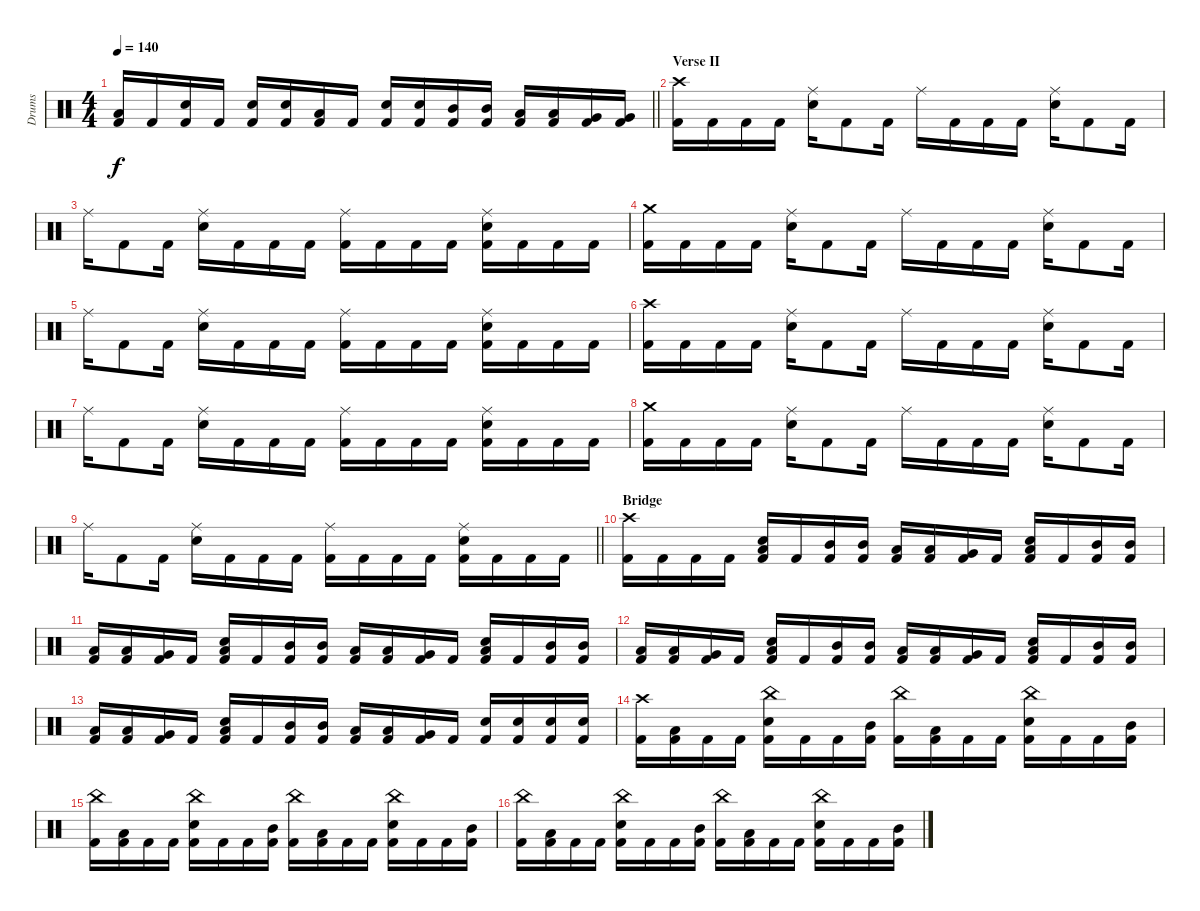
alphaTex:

\track ("Drums" "Drums") {instrument percussion}
\staff {score}
\articulation defaults
\ts (4 4)
\tempo 140
\clef neutral
\barLineRight lightlight
\ks c
("Low Floor Tom (hit)" "Kick (hit) 2").16{dy f} "Kick (hit) 2".16 ("Electric Snare (hit)" "Kick (hit) 2").16 "Kick (hit) 2".16 ("Electric Snare (hit)" "Kick (hit) 2").16 ("Electric Snare (hit)" "Kick (hit) 2").16 ("Low Tom (hit)" "Kick (hit) 2").16 "Kick (hit) 2".16 ("Electric Snare (hit)" "Kick (hit) 2").16 ("Electric Snare (hit)" "Kick (hit) 2").16 ("Mid Tom (hit)" "Kick (hit) 2").16 ("Mid Tom (hit)" "Kick (hit) 2").16 ("Low Tom (hit)" "Kick (hit) 2").16 ("Low Tom (hit)" "Kick (hit) 2").16 ("Very Low Tom (hit)" "Kick (hit) 2").16 ("Very Low Tom (hit)" "Kick (hit) 2").16 |
\section ("" "Verse II")
("Crash high (hit)" "Kick (hit) 2").16 "Kick (hit) 2".16 "Kick (hit) 2".16 "Kick (hit) 2".16 ("Ride (middle)" "Electric Snare (hit)").16 "Kick (hit) 2".8 "Kick (hit) 2".16 "Ride (middle)".16 "Kick (hit) 2".16 "Kick (hit) 2".16 "Kick (hit) 2".16 ("Ride (middle)" "Electric Snare (hit)").16 "Kick (hit) 2".8 "Kick (hit) 2".16 |
"Ride (middle)".16 "Kick (hit) 2".8 "Kick (hit) 2".16 ("Ride (middle)" "Electric Snare (hit)").16 "Kick (hit) 2".16 "Kick (hit) 2".16 "Kick (hit) 2".16 ("Ride (middle)" "Kick (hit) 2").16 "Kick (hit) 2".16 "Kick (hit) 2".16 "Kick (hit) 2".16 ("Ride (middle)" "Electric Snare (hit)" "Kick (hit) 2").16 "Kick (hit) 2".16 "Kick (hit) 2".16 "Kick (hit) 2".16 |
("Crash medium (hit)" "Kick (hit) 2").16 "Kick (hit) 2".16 "Kick (hit) 2".16 "Kick (hit) 2".16 ("Ride (middle)" "Electric Snare (hit)").16 "Kick (hit) 2".8 "Kick (hit) 2".16 "Ride (middle)".16 "Kick (hit) 2".16 "Kick (hit) 2".16 "Kick (hit) 2".16 ("Ride (middle)" "Electric Snare (hit)").16 "Kick (hit) 2".8 "Kick (hit) 2".16 |
"Ride (middle)".16 "Kick (hit) 2".8 "Kick (hit) 2".16 ("Ride (middle)" "Electric Snare (hit)").16 "Kick (hit) 2".16 "Kick (hit) 2".16 "Kick (hit) 2".16 ("Ride (middle)" "Kick (hit) 2").16 "Kick (hit) 2".16 "Kick (hit) 2".16 "Kick (hit) 2".16 ("Ride (middle)" "Electric Snare (hit)" "Kick (hit) 2").16 "Kick (hit) 2".16 "Kick (hit) 2".16 "Kick (hit) 2".16 |
("Crash high (hit)" "Kick (hit) 2").16 "Kick (hit) 2".16 "Kick (hit) 2".16 "Kick (hit) 2".16 ("Ride (middle)" "Electric Snare (hit)").16 "Kick (hit) 2".8 "Kick (hit) 2".16 "Ride (middle)".16 "Kick (hit) 2".16 "Kick (hit) 2".16 "Kick (hit) 2".16 ("Ride (middle)" "Electric Snare (hit)").16 "Kick (hit) 2".8 "Kick (hit) 2".16 |
"Ride (middle)".16 "Kick (hit) 2".8 "Kick (hit) 2".16 ("Ride (middle)" "Electric Snare (hit)").16 "Kick (hit) 2".16 "Kick (hit) 2".16 "Kick (hit) 2".16 ("Ride (middle)" "Kick (hit) 2").16 "Kick (hit) 2".16 "Kick (hit) 2".16 "Kick (hit) 2".16 ("Ride (middle)" "Electric Snare (hit)" "Kick (hit) 2").16 "Kick (hit) 2".16 "Kick (hit) 2".16 "Kick (hit) 2".16 |
("Crash medium (hit)" "Kick (hit) 2").16 "Kick (hit) 2".16 "Kick (hit) 2".16 "Kick (hit) 2".16 ("Ride (middle)" "Electric Snare (hit)").16 "Kick (hit) 2".8 "Kick (hit) 2".16 "Ride (middle)".16 "Kick (hit) 2".16 "Kick (hit) 2".16 "Kick (hit) 2".16 ("Ride (middle)" "Electric Snare (hit)").16 "Kick (hit) 2".8 "Kick (hit) 2".16 |
\barLineRight lightlight "Ride (middle)".16 "Kick (hit) 2".8 "Kick (hit) 2".16
("Ride (middle)" "Electric Snare (hit)").16 "Kick (hit) 2".16 "Kick (hit) 2".16 "Kick (hit) 2".16 ("Ride (middle)" "Kick (hit) 2").16 "Kick (hit) 2".16 "Kick (hit) 2".16 "Kick (hit) 2".16 ("Ride (middle)" "Electric Snare (hit)" "Kick (hit) 2").16 "Kick (hit) 2".16 "Kick (hit) 2".16 "Kick (hit) 2".16 |
\section ("" "Bridge")
("Crash high (hit)" "Kick (hit) 2").16 "Kick (hit) 2".16 "Kick (hit) 2".16 "Kick (hit) 2".16 ("Low Floor Tom (hit)" "Electric Snare (hit)" "Kick (hit) 2").16 "Kick (hit) 2".16 ("Mid Tom (hit)" "Kick (hit) 2").16 ("Mid Tom (hit)" "Kick (hit) 2").16 ("Low Tom (hit)" "Kick (hit) 2").16 ("Low Tom (hit)" "Kick (hit) 2").16 ("Very Low Tom (hit)" "Kick (hit) 2").16 "Kick (hit) 2".16 ("Low Floor Tom (hit)" "Electric Snare (hit)" "Kick (hit) 2").16 "Kick (hit) 2".16 ("Mid Tom (hit)" "Kick (hit) 2").16 ("Mid Tom (hit)" "Kick (hit) 2").16 |
("Low Tom (hit)" "Kick (hit) 2").16 ("Low Tom (hit)" "Kick (hit) 2").16 ("Very Low Tom (hit)" "Kick (hit) 2").16 "Kick (hit) 2".16 ("Low Floor Tom (hit)" "Electric Snare (hit)" "Kick (hit) 2").16 "Kick (hit) 2".16 ("Mid Tom (hit)" "Kick (hit) 2").16 ("Mid Tom (hit)" "Kick (hit) 2").16 ("Low Tom (hit)" "Kick (hit) 2").16 ("Low Tom (hit)" "Kick (hit) 2").16 ("Very Low Tom (hit)" "Kick (hit) 2").16 "Kick (hit) 2".16 ("Low Floor Tom (hit)" "Electric Snare (hit)" "Kick (hit) 2").16 "Kick (hit) 2".16 ("Mid Tom (hit)" "Kick (hit) 2").16 ("Mid Tom (hit)" "Kick (hit) 2").16 |
("Low Tom (hit)" "Kick (hit) 2").16 ("Low Tom (hit)" "Kick (hit) 2").16 ("Very Low Tom (hit)" "Kick (hit) 2").16 "Kick (hit) 2".16 ("Low Floor Tom (hit)" "Electric Snare (hit)" "Kick (hit) 2").16 "Kick (hit) 2".16 ("Mid Tom (hit)" "Kick (hit) 2").16 ("Mid Tom (hit)" "Kick (hit) 2").16 ("Low Tom (hit)" "Kick (hit) 2").16 ("Low Tom (hit)" "Kick (hit) 2").16 ("Very Low Tom (hit)" "Kick (hit) 2").16 "Kick (hit) 2".16 ("Low Floor Tom (hit)" "Electric Snare (hit)" "Kick (hit) 2").16 "Kick (hit) 2".16 ("Mid Tom (hit)" "Kick (hit) 2").16 ("Mid Tom (hit)" "Kick (hit) 2").16 |
("Low Tom (hit)" "Kick (hit) 2").16 ("Low Tom (hit)" "Kick (hit) 2").16 ("Very Low Tom (hit)" "Kick (hit) 2").16 "Kick (hit) 2".16 ("Low Floor Tom (hit)" "Electric Snare (hit)" "Kick (hit) 2").16 "Kick (hit) 2".16 ("Mid Tom (hit)" "Kick (hit) 2").16 ("Mid Tom (hit)" "Kick (hit) 2").16 ("Low Tom (hit)" "Kick (hit) 2").16 ("Low Tom (hit)" "Kick (hit) 2").16 ("Very Low Tom (hit)" "Kick (hit) 2").16 "Kick (hit) 2".16 ("Electric Snare (hit)" "Kick (hit) 2").16 ("Electric Snare (hit)" "Kick (hit) 2").16 ("Electric Snare (hit)" "Kick (hit) 2").16 ("Electric Snare (hit)" "Kick (hit) 2").16 |
("Crash high (hit)" "Kick (hit) 2").16 ("Low Tom (hit)" "Kick (hit) 2").16 "Kick (hit) 2".16 "Kick (hit) 2".16 ("China (hit)" "Electric Snare (hit)" "Kick (hit) 2").16 "Kick (hit) 2".16 "Kick (hit) 2".16 ("Mid Tom (hit)" "Kick (hit) 2").16 ("China (hit)" "Kick (hit) 2").16 ("Low Tom (hit)" "Kick (hit) 2").16 "Kick (hit) 2".16 "Kick (hit) 2".16 ("China (hit)" "Electric Snare (hit)" "Kick (hit) 2").16 "Kick (hit) 2".16 "Kick (hit) 2".16 ("Mid Tom (hit)" "Kick (hit) 2").16 |
("China (hit)" "Kick (hit) 2").16 ("Low Tom (hit)" "Kick (hit) 2").16 "Kick (hit) 2".16 "Kick (hit) 2".16 ("China (hit)" "Electric Snare (hit)" "Kick (hit) 2").16 "Kick (hit) 2".16 "Kick (hit) 2".16 ("Mid Tom (hit)" "Kick (hit) 2").16 ("China (hit)" "Kick (hit) 2").16 ("Low Tom (hit)" "Kick (hit) 2").16 "Kick (hit) 2".16 "Kick (hit) 2".16 ("China (hit)" "Electric Snare (hit)" "Kick (hit) 2").16 "Kick (hit) 2".16 "Kick (hit) 2".16 ("Mid Tom (hit)" "Kick (hit) 2").16 |
("China (hit)" "Kick (hit) 2").16 ("Low Tom (hit)" "Kick (hit) 2").16 "Kick (hit) 2".16 "Kick (hit) 2".16 ("China (hit)" "Electric Snare (hit)" "Kick (hit) 2").16 "Kick (hit) 2".16 "Kick (hit) 2".16 ("Mid Tom (hit)" "Kick (hit) 2").16 ("China (hit)" "Kick (hit) 2").16 ("Low Tom (hit)" "Kick (hit) 2").16 "Kick (hit) 2".16 "Kick (hit) 2".16 ("China (hit)" "Electric Snare (hit)" "Kick (hit) 2").16 "Kick (hit) 2".16 "Kick (hit) 2".16 ("Mid Tom (hit)" "Kick (hit) 2").16
